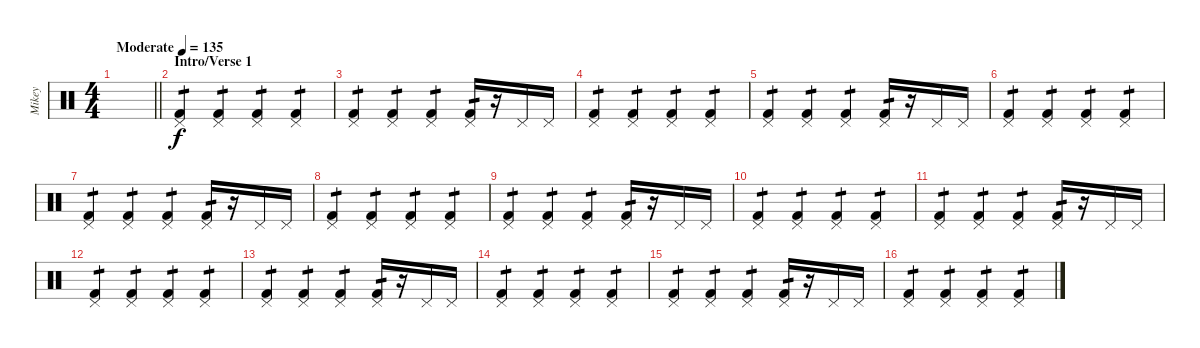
\track ("Mikey" "Mikey") {instrument percussion}
\staff {score}
\articulation defaults
\ts (4 4)
\tempo (135 "Moderate")
\clef neutral
\barLineRight lightlight
\ks c
|
\section ("" "Intro/Verse 1")
("Pedal Hi-Hat (hit)" "Kick (hit) 2").4{tp 1} ("Pedal Hi-Hat (hit)" "Kick (hit) 2").4{tp 1} ("Pedal Hi-Hat (hit)" "Kick (hit) 2").4{tp 1} ("Pedal Hi-Hat (hit)" "Kick (hit) 2").4{tp 1} |
("Pedal Hi-Hat (hit)" "Kick (hit) 2").4{tp 1} ("Pedal Hi-Hat (hit)" "Kick (hit) 2").4{tp 1} ("Pedal Hi-Hat (hit)" "Kick (hit) 2").4{tp 1} ("Pedal Hi-Hat (hit)" "Kick (hit) 2").16{tp 1} r.16 "Pedal Hi-Hat (hit)".16 "Pedal Hi-Hat (hit)".16 |
("Pedal Hi-Hat (hit)" "Kick (hit) 2").4{tp 1} ("Pedal Hi-Hat (hit)" "Kick (hit) 2").4{tp 1} ("Pedal Hi-Hat (hit)" "Kick (hit) 2").4{tp 1} ("Pedal Hi-Hat (hit)" "Kick (hit) 2").4{tp 1} |
("Pedal Hi-Hat (hit)" "Kick (hit) 2").4{tp 1} ("Pedal Hi-Hat (hit)" "Kick (hit) 2").4{tp 1} ("Pedal Hi-Hat (hit)" "Kick (hit) 2").4{tp 1} ("Pedal Hi-Hat (hit)" "Kick (hit) 2").16{tp 1} r.16 "Pedal Hi-Hat (hit)".16 "Pedal Hi-Hat (hit)".16 |
("Pedal Hi-Hat (hit)" "Kick (hit) 2").4{tp 1} ("Pedal Hi-Hat (hit)" "Kick (hit) 2").4{tp 1} ("Pedal Hi-Hat (hit)" "Kick (hit) 2").4{tp 1} ("Pedal Hi-Hat (hit)" "Kick (hit) 2").4{tp 1} |
("Pedal Hi-Hat (hit)" "Kick (hit) 2").4{tp 1} ("Pedal Hi-Hat (hit)" "Kick (hit) 2").4{tp 1} ("Pedal Hi-Hat (hit)" "Kick (hit) 2").4{tp 1} ("Pedal Hi-Hat (hit)" "Kick (hit) 2").16{tp 1} r.16 "Pedal Hi-Hat (hit)".16 "Pedal Hi-Hat (hit)".16 |
("Pedal Hi-Hat (hit)" "Kick (hit) 2").4{tp 1} ("Pedal Hi-Hat (hit)" "Kick (hit) 2").4{tp 1} ("Pedal Hi-Hat (hit)" "Kick (hit) 2").4{tp 1} ("Pedal Hi-Hat (hit)" "Kick (hit) 2").4{tp 1} |
("Pedal Hi-Hat (hit)" "Kick (hit) 2").4{tp 1} ("Pedal Hi-Hat (hit)" "Kick (hit) 2").4{tp 1} ("Pedal Hi-Hat (hit)" "Kick (hit) 2").4{tp 1} ("Pedal Hi-Hat (hit)" "Kick (hit) 2").16{tp 1} r.16 "Pedal Hi-Hat (hit)".16 "Pedal Hi-Hat (hit)".16 |
("Pedal Hi-Hat (hit)" "Kick (hit) 2").4{tp 1} ("Pedal Hi-Hat (hit)" "Kick (hit) 2").4{tp 1} ("Pedal Hi-Hat (hit)" "Kick (hit) 2").4{tp 1} ("Pedal Hi-Hat (hit)" "Kick (hit) 2").4{tp 1} |
("Pedal Hi-Hat (hit)" "Kick (hit) 2").4{tp 1} ("Pedal Hi-Hat (hit)" "Kick (hit) 2").4{tp 1} ("Pedal Hi-Hat (hit)" "Kick (hit) 2").4{tp 1} ("Pedal Hi-Hat (hit)" "Kick (hit) 2").16{tp 1} r.16 "Pedal Hi-Hat (hit)".16 "Pedal Hi-Hat (hit)".16 |
("Pedal Hi-Hat (hit)" "Kick (hit) 2").4{tp 1} ("Pedal Hi-Hat (hit)" "Kick (hit) 2").4{tp 1} ("Pedal Hi-Hat (hit)" "Kick (hit) 2").4{tp 1} ("Pedal Hi-Hat (hit)" "Kick (hit) 2").4{tp 1} |
("Pedal Hi-Hat (hit)" "Kick (hit) 2").4{tp 1} ("Pedal Hi-Hat (hit)" "Kick (hit) 2").4{tp 1} ("Pedal Hi-Hat (hit)" "Kick (hit) 2").4{tp 1} ("Pedal Hi-Hat (hit)" "Kick (hit) 2").16{tp 1} r.16 "Pedal Hi-Hat (hit)".16 "Pedal Hi-Hat (hit)".16 |
("Pedal Hi-Hat (hit)" "Kick (hit) 2").4{tp 1} ("Pedal Hi-Hat (hit)" "Kick (hit) 2").4{tp 1} ("Pedal Hi-Hat (hit)" "Kick (hit) 2").4{tp 1} ("Pedal Hi-Hat (hit)" "Kick (hit) 2").4{tp 1} |
("Pedal Hi-Hat (hit)" "Kick (hit) 2").4{tp 1} ("Pedal Hi-Hat (hit)" "Kick (hit) 2").4{tp 1} ("Pedal Hi-Hat (hit)" "Kick (hit) 2").4{tp 1} ("Pedal Hi-Hat (hit)" "Kick (hit) 2").16{tp 1} r.16 "Pedal Hi-Hat (hit)".16 "Pedal Hi-Hat (hit)".16 |
("Pedal Hi-Hat (hit)" "Kick (hit) 2").4{tp 1} ("Pedal Hi-Hat (hit)" "Kick (hit) 2").4{tp 1} ("Pedal Hi-Hat (hit)" "Kick (hit) 2").4{tp 1} ("Pedal Hi-Hat (hit)" "Kick (hit) 2").4{tp 1}
